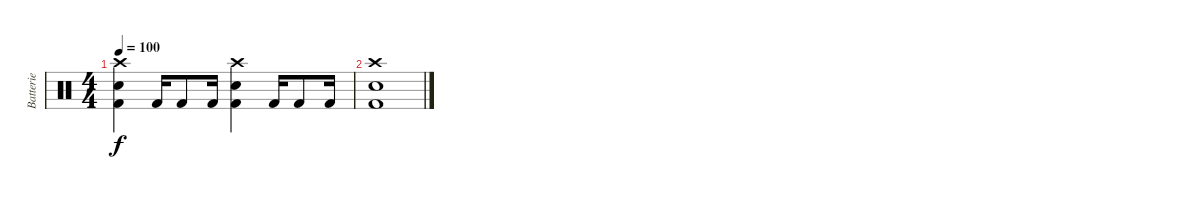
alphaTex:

\track ("Batterie" "Batterie") {instrument percussion}
\staff {score}
\articulation defaults
\ts (4 4)
\tempo 100
\clef neutral
\ks c
("Crash high (hit)" "Snare (hit) 2" "Kick (hit) 2").4{dy f} "Kick (hit) 2".16 "Kick (hit) 2".8 "Kick (hit) 2".16 ("Crash high (hit)" "Snare (hit) 2" "Kick (hit) 2").4 "Kick (hit) 2".16 "Kick (hit) 2".8 "Kick (hit) 2".16 |
("Crash high (hit)" "Snare (hit) 2" "Kick (hit) 2").1
